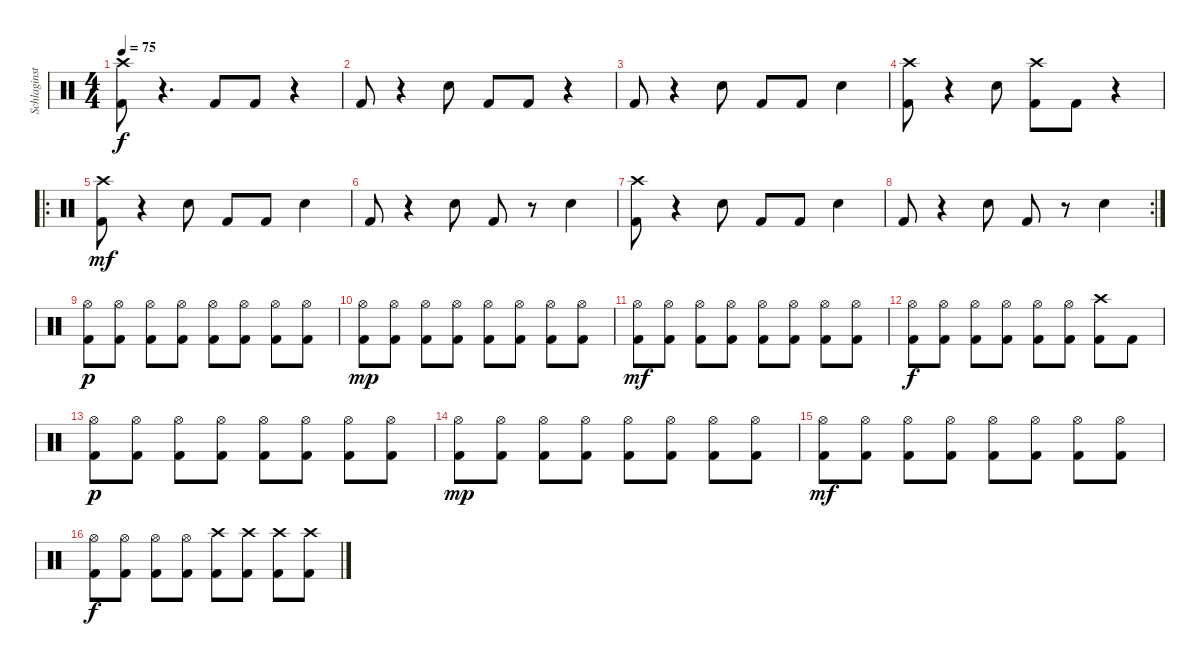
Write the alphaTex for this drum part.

\track ("Schlaginstrumente - Auswahl" "Schlaginst") {instrument percussion}
\staff {score}
\articulation defaults
\ts (4 4)
\tempo 75
\clef neutral
\ks c
("Crash high (hit)" "Kick (hit) 2").8{dy f} r.4{d} "Kick (hit) 2".8 "Kick (hit) 2".8 r.4 |
"Kick (hit) 2".8 r.4 "Snare (hit) 2".8 "Kick (hit) 2".8 "Kick (hit) 2".8 r.4 |
"Kick (hit) 2".8 r.4 "Snare (hit) 2".8 "Kick (hit) 2".8 "Kick (hit) 2".8 "Snare (hit) 2".4 |
("Crash high (hit)" "Kick (hit) 2").8 r.4 "Snare (hit) 2".8 ("Crash high (hit)" "Kick (hit) 2").8 "Kick (hit) 2".8 r.4 |
\ro
("Crash high (hit)" "Kick (hit) 2").8{dy mf} r.4 "Snare (hit) 2".8 "Kick (hit) 2".8 "Kick (hit) 2".8 "Snare (hit) 2".4 |
"Kick (hit) 2".8 r.4 "Snare (hit) 2".8 "Kick (hit) 2".8 r.8 "Snare (hit) 2".4 |
("Crash high (hit)" "Kick (hit) 2").8 r.4 "Snare (hit) 2".8 "Kick (hit) 2".8 "Kick (hit) 2".8 "Snare (hit) 2".4 |
\rc 2 "Kick (hit) 2".8
r.4 "Snare (hit) 2".8 "Kick (hit) 2".8 r.8 "Snare (hit) 2".4 |
("Hi-Hat (open)" "Kick (hit) 2").8{dy p} ("Hi-Hat (open)" "Kick (hit) 2").8 ("Hi-Hat (open)" "Kick (hit) 2").8 ("Hi-Hat (open)" "Kick (hit) 2").8 ("Hi-Hat (open)" "Kick (hit) 2").8 ("Hi-Hat (open)" "Kick (hit) 2").8 ("Hi-Hat (open)" "Kick (hit) 2").8 ("Hi-Hat (open)" "Kick (hit) 2").8 |
("Hi-Hat (open)" "Kick (hit) 2").8{dy mp} ("Hi-Hat (open)" "Kick (hit) 2").8 ("Hi-Hat (open)" "Kick (hit) 2").8 ("Hi-Hat (open)" "Kick (hit) 2").8 ("Hi-Hat (open)" "Kick (hit) 2").8 ("Hi-Hat (open)" "Kick (hit) 2").8 ("Hi-Hat (open)" "Kick (hit) 2").8 ("Hi-Hat (open)" "Kick (hit) 2").8 |
("Hi-Hat (open)" "Kick (hit) 2").8{dy mf} ("Hi-Hat (open)" "Kick (hit) 2").8 ("Hi-Hat (open)" "Kick (hit) 2").8 ("Hi-Hat (open)" "Kick (hit) 2").8 ("Hi-Hat (open)" "Kick (hit) 2").8 ("Hi-Hat (open)" "Kick (hit) 2").8 ("Hi-Hat (open)" "Kick (hit) 2").8 ("Hi-Hat (open)" "Kick (hit) 2").8 |
("Hi-Hat (open)" "Kick (hit) 2").8{dy f} ("Hi-Hat (open)" "Kick (hit) 2").8 ("Hi-Hat (open)" "Kick (hit) 2").8 ("Hi-Hat (open)" "Kick (hit) 2").8 ("Hi-Hat (open)" "Kick (hit) 2").8 ("Hi-Hat (open)" "Kick (hit) 2").8 ("Crash high (hit)" "Kick (hit) 2").8 "Kick (hit) 2".8 |
("Hi-Hat (open)" "Kick (hit) 2").8{dy p} ("Hi-Hat (open)" "Kick (hit) 2").8 ("Hi-Hat (open)" "Kick (hit) 2").8 ("Hi-Hat (open)" "Kick (hit) 2").8 ("Hi-Hat (open)" "Kick (hit) 2").8 ("Hi-Hat (open)" "Kick (hit) 2").8 ("Hi-Hat (open)" "Kick (hit) 2").8 ("Hi-Hat (open)" "Kick (hit) 2").8 |
("Hi-Hat (open)" "Kick (hit) 2").8{dy mp} ("Hi-Hat (open)" "Kick (hit) 2").8 ("Hi-Hat (open)" "Kick (hit) 2").8 ("Hi-Hat (open)" "Kick (hit) 2").8 ("Hi-Hat (open)" "Kick (hit) 2").8 ("Hi-Hat (open)" "Kick (hit) 2").8 ("Hi-Hat (open)" "Kick (hit) 2").8 ("Hi-Hat (open)" "Kick (hit) 2").8 |
("Hi-Hat (open)" "Kick (hit) 2").8{dy mf} ("Hi-Hat (open)" "Kick (hit) 2").8 ("Hi-Hat (open)" "Kick (hit) 2").8 ("Hi-Hat (open)" "Kick (hit) 2").8 ("Hi-Hat (open)" "Kick (hit) 2").8 ("Hi-Hat (open)" "Kick (hit) 2").8 ("Hi-Hat (open)" "Kick (hit) 2").8 ("Hi-Hat (open)" "Kick (hit) 2").8 |
("Hi-Hat (open)" "Kick (hit) 2").8{dy f} ("Hi-Hat (open)" "Kick (hit) 2").8 ("Hi-Hat (open)" "Kick (hit) 2").8 ("Hi-Hat (open)" "Kick (hit) 2").8 ("Crash high (hit)" "Kick (hit) 2").8 ("Crash high (hit)" "Kick (hit) 2").8 ("Crash high (hit)" "Kick (hit) 2").8 ("Crash high (hit)" "Kick (hit) 2").8
